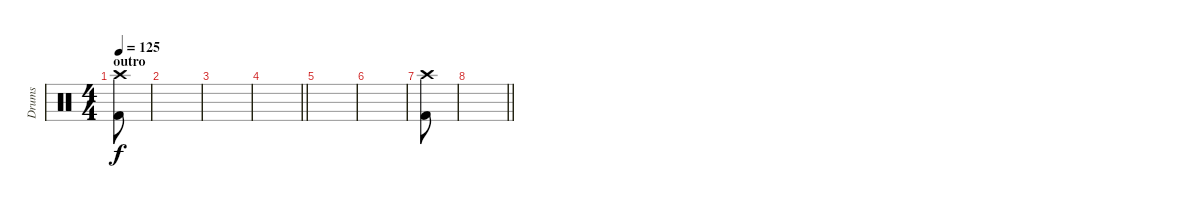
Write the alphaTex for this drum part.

\track ("Drums" "Drums") {instrument percussion}
\staff {score}
\articulation defaults
\ts (4 4)
\section ("" "outro")
\tempo 125
\clef neutral
\ks c
("Kick (hit) 2" "Crash high (hit)").8{dy f} |
|
|
\barLineRight lightlight
|
|
|
("Kick (hit) 2" "Crash high (hit)").8 |
\barLineRight lightlight
